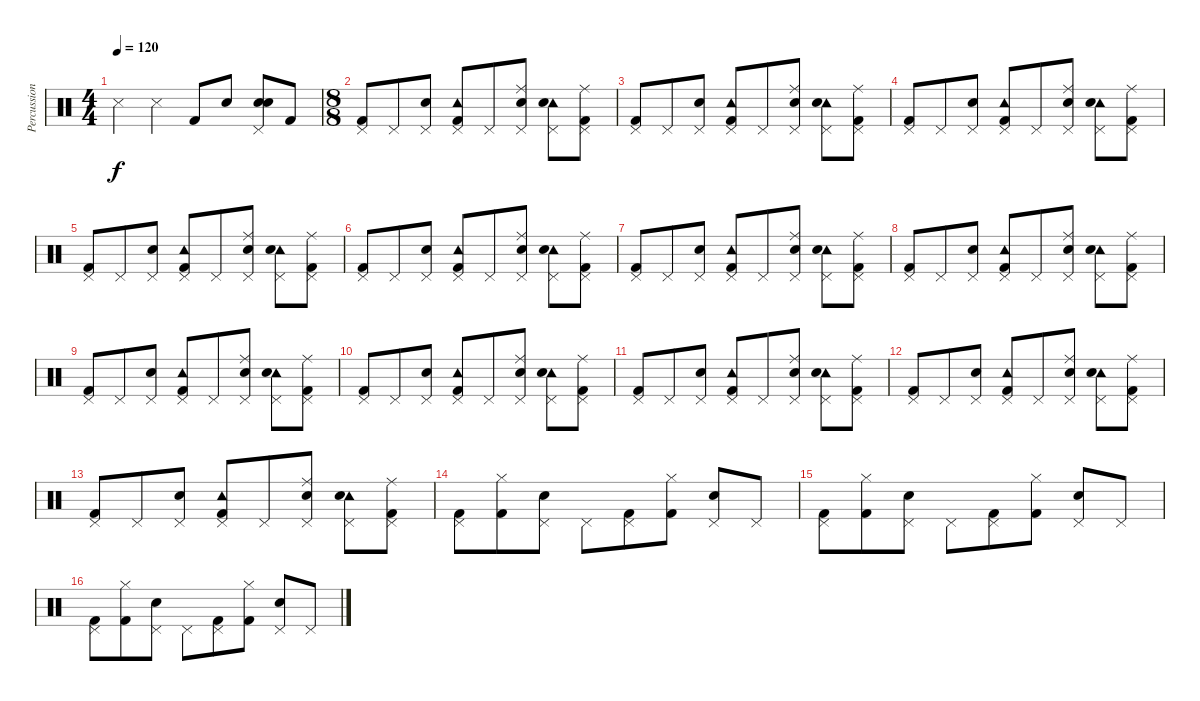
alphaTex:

\track ("Percussions" "Percussion") {instrument percussion}
\staff {score}
\articulation defaults
\ts (4 4)
\tempo 120
\clef neutral
\ks c "Snare (side stick) 3".4{dy f} "Snare (side stick) 3".4 "Kick (hit) 2".8 "Electric Snare (hit)".8
("Electric Snare (hit)" "Electric Snare (hit)" "Pedal Hi-Hat (hit)").8 "Kick (hit) 2".8 |
\ts (8 8)
("Pedal Hi-Hat (hit)" "Kick (hit) 2").8 "Pedal Hi-Hat (hit)".8 ("Pedal Hi-Hat (hit)" "Electric Snare (hit)").8 ("Tambourine (hit)" "Pedal Hi-Hat (hit)" "Kick (hit) 2").8 "Pedal Hi-Hat (hit)".8 ("Ride (middle)" "Pedal Hi-Hat (hit)" "Electric Snare (hit)").8 ("Tambourine (hit)" "Pedal Hi-Hat (hit)" "Electric Snare (hit)").8 ("Ride (middle)" "Pedal Hi-Hat (hit)" "Kick (hit) 2").8 |
("Pedal Hi-Hat (hit)" "Kick (hit) 2").8 "Pedal Hi-Hat (hit)".8 ("Pedal Hi-Hat (hit)" "Electric Snare (hit)").8 ("Tambourine (hit)" "Pedal Hi-Hat (hit)" "Kick (hit) 2").8 "Pedal Hi-Hat (hit)".8 ("Ride (middle)" "Pedal Hi-Hat (hit)" "Electric Snare (hit)").8 ("Tambourine (hit)" "Pedal Hi-Hat (hit)" "Electric Snare (hit)").8 ("Ride (middle)" "Pedal Hi-Hat (hit)" "Kick (hit) 2").8 |
("Pedal Hi-Hat (hit)" "Kick (hit) 2").8 "Pedal Hi-Hat (hit)".8 ("Pedal Hi-Hat (hit)" "Electric Snare (hit)").8 ("Tambourine (hit)" "Pedal Hi-Hat (hit)" "Kick (hit) 2").8 "Pedal Hi-Hat (hit)".8 ("Ride (middle)" "Pedal Hi-Hat (hit)" "Electric Snare (hit)").8 ("Tambourine (hit)" "Pedal Hi-Hat (hit)" "Electric Snare (hit)").8 ("Ride (middle)" "Pedal Hi-Hat (hit)" "Kick (hit) 2").8 |
("Pedal Hi-Hat (hit)" "Kick (hit) 2").8 "Pedal Hi-Hat (hit)".8 ("Pedal Hi-Hat (hit)" "Electric Snare (hit)").8 ("Tambourine (hit)" "Pedal Hi-Hat (hit)" "Kick (hit) 2").8 "Pedal Hi-Hat (hit)".8 ("Ride (middle)" "Pedal Hi-Hat (hit)" "Electric Snare (hit)").8 ("Tambourine (hit)" "Pedal Hi-Hat (hit)" "Electric Snare (hit)").8 ("Ride (middle)" "Pedal Hi-Hat (hit)" "Kick (hit) 2").8 |
("Pedal Hi-Hat (hit)" "Kick (hit) 2").8 "Pedal Hi-Hat (hit)".8 ("Pedal Hi-Hat (hit)" "Electric Snare (hit)").8 ("Tambourine (hit)" "Pedal Hi-Hat (hit)" "Kick (hit) 2").8 "Pedal Hi-Hat (hit)".8 ("Ride (middle)" "Pedal Hi-Hat (hit)" "Electric Snare (hit)").8 ("Tambourine (hit)" "Pedal Hi-Hat (hit)" "Electric Snare (hit)").8 ("Ride (middle)" "Pedal Hi-Hat (hit)" "Kick (hit) 2").8 |
("Pedal Hi-Hat (hit)" "Kick (hit) 2").8 "Pedal Hi-Hat (hit)".8 ("Pedal Hi-Hat (hit)" "Electric Snare (hit)").8 ("Tambourine (hit)" "Pedal Hi-Hat (hit)" "Kick (hit) 2").8 "Pedal Hi-Hat (hit)".8 ("Ride (middle)" "Pedal Hi-Hat (hit)" "Electric Snare (hit)").8 ("Tambourine (hit)" "Pedal Hi-Hat (hit)" "Electric Snare (hit)").8 ("Ride (middle)" "Pedal Hi-Hat (hit)" "Kick (hit) 2").8 |
("Pedal Hi-Hat (hit)" "Kick (hit) 2").8 "Pedal Hi-Hat (hit)".8 ("Pedal Hi-Hat (hit)" "Electric Snare (hit)").8 ("Tambourine (hit)" "Pedal Hi-Hat (hit)" "Kick (hit) 2").8 "Pedal Hi-Hat (hit)".8 ("Ride (middle)" "Pedal Hi-Hat (hit)" "Electric Snare (hit)").8 ("Tambourine (hit)" "Pedal Hi-Hat (hit)" "Electric Snare (hit)").8 ("Ride (middle)" "Pedal Hi-Hat (hit)" "Kick (hit) 2").8 |
("Pedal Hi-Hat (hit)" "Kick (hit) 2").8 "Pedal Hi-Hat (hit)".8 ("Pedal Hi-Hat (hit)" "Electric Snare (hit)").8 ("Tambourine (hit)" "Pedal Hi-Hat (hit)" "Kick (hit) 2").8 "Pedal Hi-Hat (hit)".8 ("Ride (middle)" "Pedal Hi-Hat (hit)" "Electric Snare (hit)").8 ("Tambourine (hit)" "Pedal Hi-Hat (hit)" "Electric Snare (hit)").8 ("Ride (middle)" "Pedal Hi-Hat (hit)" "Kick (hit) 2").8 |
("Pedal Hi-Hat (hit)" "Kick (hit) 2").8 "Pedal Hi-Hat (hit)".8 ("Pedal Hi-Hat (hit)" "Electric Snare (hit)").8 ("Tambourine (hit)" "Pedal Hi-Hat (hit)" "Kick (hit) 2").8 "Pedal Hi-Hat (hit)".8 ("Ride (middle)" "Pedal Hi-Hat (hit)" "Electric Snare (hit)").8 ("Tambourine (hit)" "Pedal Hi-Hat (hit)" "Electric Snare (hit)").8 ("Ride (middle)" "Pedal Hi-Hat (hit)" "Kick (hit) 2").8 |
("Pedal Hi-Hat (hit)" "Kick (hit) 2").8 "Pedal Hi-Hat (hit)".8 ("Pedal Hi-Hat (hit)" "Electric Snare (hit)").8 ("Tambourine (hit)" "Pedal Hi-Hat (hit)" "Kick (hit) 2").8 "Pedal Hi-Hat (hit)".8 ("Ride (middle)" "Pedal Hi-Hat (hit)" "Electric Snare (hit)").8 ("Tambourine (hit)" "Pedal Hi-Hat (hit)" "Electric Snare (hit)").8 ("Ride (middle)" "Pedal Hi-Hat (hit)" "Kick (hit) 2").8 |
("Pedal Hi-Hat (hit)" "Kick (hit) 2").8 "Pedal Hi-Hat (hit)".8 ("Pedal Hi-Hat (hit)" "Electric Snare (hit)").8 ("Tambourine (hit)" "Pedal Hi-Hat (hit)" "Kick (hit) 2").8 "Pedal Hi-Hat (hit)".8 ("Ride (middle)" "Pedal Hi-Hat (hit)" "Electric Snare (hit)").8 ("Tambourine (hit)" "Pedal Hi-Hat (hit)" "Electric Snare (hit)").8 ("Ride (middle)" "Pedal Hi-Hat (hit)" "Kick (hit) 2").8 |
("Pedal Hi-Hat (hit)" "Kick (hit) 2").8 "Pedal Hi-Hat (hit)".8 ("Pedal Hi-Hat (hit)" "Electric Snare (hit)").8 ("Tambourine (hit)" "Pedal Hi-Hat (hit)" "Kick (hit) 2").8 "Pedal Hi-Hat (hit)".8 ("Ride (middle)" "Pedal Hi-Hat (hit)" "Electric Snare (hit)").8 ("Tambourine (hit)" "Pedal Hi-Hat (hit)" "Electric Snare (hit)").8 ("Ride (middle)" "Pedal Hi-Hat (hit)" "Kick (hit) 2").8 |
("Pedal Hi-Hat (hit)" "Kick (hit) 2").8 ("Hi-Hat (closed)" "Kick (hit) 2").8 ("Pedal Hi-Hat (hit)" "Electric Snare (hit)").8 "Pedal Hi-Hat (hit)".8 ("Pedal Hi-Hat (hit)" "Kick (hit) 2").8 ("Hi-Hat (closed)" "Kick (hit) 2").8 ("Pedal Hi-Hat (hit)" "Electric Snare (hit)").8 "Pedal Hi-Hat (hit)".8 |
("Pedal Hi-Hat (hit)" "Kick (hit) 2").8 ("Hi-Hat (closed)" "Kick (hit) 2").8 ("Pedal Hi-Hat (hit)" "Electric Snare (hit)").8 "Pedal Hi-Hat (hit)".8 ("Pedal Hi-Hat (hit)" "Kick (hit) 2").8 ("Hi-Hat (closed)" "Kick (hit) 2").8 ("Pedal Hi-Hat (hit)" "Electric Snare (hit)").8 "Pedal Hi-Hat (hit)".8 |
("Pedal Hi-Hat (hit)" "Kick (hit) 2").8 ("Hi-Hat (closed)" "Kick (hit) 2").8 ("Pedal Hi-Hat (hit)" "Electric Snare (hit)").8 "Pedal Hi-Hat (hit)".8 ("Pedal Hi-Hat (hit)" "Kick (hit) 2").8 ("Hi-Hat (closed)" "Kick (hit) 2").8 ("Pedal Hi-Hat (hit)" "Electric Snare (hit)").8 "Pedal Hi-Hat (hit)".8
